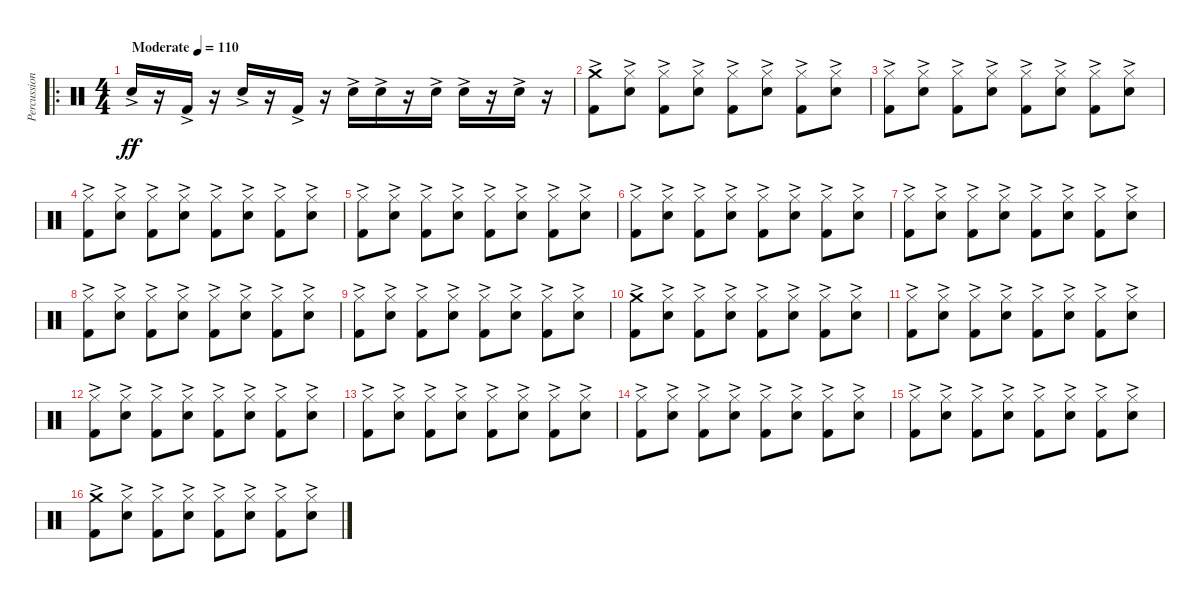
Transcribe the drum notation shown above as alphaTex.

\track ("Percussion" "Percussion") {instrument percussion}
\staff {score}
\articulation defaults
\ro
\ts (4 4)
\tempo (110 "Moderate")
\clef neutral
\ks c "Snare (hit) 2"{ac}.16{dy ff}
r.16 "Kick (hit) 2"{ac}.16 r.16 "Snare (hit) 2"{ac}.16 r.16 "Kick (hit) 2"{ac}.16 r.16 "Snare (hit) 2"{ac}.16 "Snare (hit) 2"{ac}.16 r.16 "Snare (hit) 2"{ac}.16 "Snare (hit) 2"{ac}.16 r.16 "Snare (hit) 2"{ac}.16 r.16 |
("Crash medium (hit)"{ac} "Kick (hit) 2"{ac}).8 ("Hi-Hat (closed)"{ac} "Snare (hit) 2"{ac}).8 ("Hi-Hat (closed)"{ac} "Kick (hit) 2"{ac}).8 ("Hi-Hat (closed)"{ac} "Snare (hit) 2"{ac}).8 ("Hi-Hat (closed)"{ac} "Kick (hit) 2"{ac}).8 ("Hi-Hat (closed)"{ac} "Snare (hit) 2"{ac}).8 ("Hi-Hat (closed)"{ac} "Kick (hit) 2"{ac}).8 ("Hi-Hat (closed)"{ac} "Snare (hit) 2"{ac}).8 |
("Hi-Hat (closed)"{ac} "Kick (hit) 2"{ac}).8 ("Hi-Hat (closed)"{ac} "Snare (hit) 2"{ac}).8 ("Hi-Hat (closed)"{ac} "Kick (hit) 2"{ac}).8 ("Hi-Hat (closed)"{ac} "Snare (hit) 2"{ac}).8 ("Hi-Hat (closed)"{ac} "Kick (hit) 2"{ac}).8 ("Hi-Hat (closed)"{ac} "Snare (hit) 2"{ac}).8 ("Hi-Hat (closed)"{ac} "Kick (hit) 2"{ac}).8 ("Hi-Hat (closed)"{ac} "Snare (hit) 2"{ac}).8 |
("Hi-Hat (closed)"{ac} "Kick (hit) 2"{ac}).8 ("Hi-Hat (closed)"{ac} "Snare (hit) 2"{ac}).8 ("Hi-Hat (closed)"{ac} "Kick (hit) 2"{ac}).8 ("Hi-Hat (closed)"{ac} "Snare (hit) 2"{ac}).8 ("Hi-Hat (closed)"{ac} "Kick (hit) 2"{ac}).8 ("Hi-Hat (closed)"{ac} "Snare (hit) 2"{ac}).8 ("Hi-Hat (closed)"{ac} "Kick (hit) 2"{ac}).8 ("Hi-Hat (closed)"{ac} "Snare (hit) 2"{ac}).8 |
("Hi-Hat (closed)"{ac} "Kick (hit) 2"{ac}).8 ("Hi-Hat (closed)"{ac} "Snare (hit) 2"{ac}).8 ("Hi-Hat (closed)"{ac} "Kick (hit) 2"{ac}).8 ("Hi-Hat (closed)"{ac} "Snare (hit) 2"{ac}).8 ("Hi-Hat (closed)"{ac} "Kick (hit) 2"{ac}).8 ("Hi-Hat (closed)"{ac} "Snare (hit) 2"{ac}).8 ("Hi-Hat (closed)"{ac} "Kick (hit) 2"{ac}).8 ("Hi-Hat (closed)"{ac} "Snare (hit) 2"{ac}).8 |
("Hi-Hat (closed)"{ac} "Kick (hit) 2"{ac}).8 ("Hi-Hat (closed)"{ac} "Snare (hit) 2"{ac}).8 ("Hi-Hat (closed)"{ac} "Kick (hit) 2"{ac}).8 ("Hi-Hat (closed)"{ac} "Snare (hit) 2"{ac}).8 ("Hi-Hat (closed)"{ac} "Kick (hit) 2"{ac}).8 ("Hi-Hat (closed)"{ac} "Snare (hit) 2"{ac}).8 ("Hi-Hat (closed)"{ac} "Kick (hit) 2"{ac}).8 ("Hi-Hat (closed)"{ac} "Snare (hit) 2"{ac}).8 |
("Hi-Hat (closed)"{ac} "Kick (hit) 2"{ac}).8 ("Hi-Hat (closed)"{ac} "Snare (hit) 2"{ac}).8 ("Hi-Hat (closed)"{ac} "Kick (hit) 2"{ac}).8 ("Hi-Hat (closed)"{ac} "Snare (hit) 2"{ac}).8 ("Hi-Hat (closed)"{ac} "Kick (hit) 2"{ac}).8 ("Hi-Hat (closed)"{ac} "Snare (hit) 2"{ac}).8 ("Hi-Hat (closed)"{ac} "Kick (hit) 2"{ac}).8 ("Hi-Hat (closed)"{ac} "Snare (hit) 2"{ac}).8 |
("Hi-Hat (closed)"{ac} "Kick (hit) 2"{ac}).8 ("Hi-Hat (closed)"{ac} "Snare (hit) 2"{ac}).8 ("Hi-Hat (closed)"{ac} "Kick (hit) 2"{ac}).8 ("Hi-Hat (closed)"{ac} "Snare (hit) 2"{ac}).8 ("Hi-Hat (closed)"{ac} "Kick (hit) 2"{ac}).8 ("Hi-Hat (closed)"{ac} "Snare (hit) 2"{ac}).8 ("Hi-Hat (closed)"{ac} "Kick (hit) 2"{ac}).8 ("Hi-Hat (closed)"{ac} "Snare (hit) 2"{ac}).8 |
("Hi-Hat (closed)"{ac} "Kick (hit) 2"{ac}).8 ("Hi-Hat (closed)"{ac} "Snare (hit) 2"{ac}).8 ("Hi-Hat (closed)"{ac} "Kick (hit) 2"{ac}).8 ("Hi-Hat (closed)"{ac} "Snare (hit) 2"{ac}).8 ("Hi-Hat (closed)"{ac} "Kick (hit) 2"{ac}).8 ("Hi-Hat (closed)"{ac} "Snare (hit) 2"{ac}).8 ("Hi-Hat (closed)"{ac} "Kick (hit) 2"{ac}).8 ("Hi-Hat (closed)"{ac} "Snare (hit) 2"{ac}).8 |
("Crash medium (hit)"{ac} "Kick (hit) 2"{ac}).8 ("Hi-Hat (closed)"{ac} "Snare (hit) 2"{ac}).8 ("Hi-Hat (closed)"{ac} "Kick (hit) 2"{ac}).8 ("Hi-Hat (closed)"{ac} "Snare (hit) 2"{ac}).8 ("Hi-Hat (closed)"{ac} "Kick (hit) 2"{ac}).8 ("Hi-Hat (closed)"{ac} "Snare (hit) 2"{ac}).8 ("Hi-Hat (closed)"{ac} "Kick (hit) 2"{ac}).8 ("Hi-Hat (closed)"{ac} "Snare (hit) 2"{ac}).8 |
("Hi-Hat (closed)"{ac} "Kick (hit) 2"{ac}).8 ("Hi-Hat (closed)"{ac} "Snare (hit) 2"{ac}).8 ("Hi-Hat (closed)"{ac} "Kick (hit) 2"{ac}).8 ("Hi-Hat (closed)"{ac} "Snare (hit) 2"{ac}).8 ("Hi-Hat (closed)"{ac} "Kick (hit) 2"{ac}).8 ("Hi-Hat (closed)"{ac} "Snare (hit) 2"{ac}).8 ("Hi-Hat (closed)"{ac} "Kick (hit) 2"{ac}).8 ("Hi-Hat (closed)"{ac} "Snare (hit) 2"{ac}).8 |
("Hi-Hat (closed)"{ac} "Kick (hit) 2"{ac}).8 ("Hi-Hat (closed)"{ac} "Snare (hit) 2"{ac}).8 ("Hi-Hat (closed)"{ac} "Kick (hit) 2"{ac}).8 ("Hi-Hat (closed)"{ac} "Snare (hit) 2"{ac}).8 ("Hi-Hat (closed)"{ac} "Kick (hit) 2"{ac}).8 ("Hi-Hat (closed)"{ac} "Snare (hit) 2"{ac}).8 ("Hi-Hat (closed)"{ac} "Kick (hit) 2"{ac}).8 ("Hi-Hat (closed)"{ac} "Snare (hit) 2"{ac}).8 |
("Hi-Hat (closed)"{ac} "Kick (hit) 2"{ac}).8 ("Hi-Hat (closed)"{ac} "Snare (hit) 2"{ac}).8 ("Hi-Hat (closed)"{ac} "Kick (hit) 2"{ac}).8 ("Hi-Hat (closed)"{ac} "Snare (hit) 2"{ac}).8 ("Hi-Hat (closed)"{ac} "Kick (hit) 2"{ac}).8 ("Hi-Hat (closed)"{ac} "Snare (hit) 2"{ac}).8 ("Hi-Hat (closed)"{ac} "Kick (hit) 2"{ac}).8 ("Hi-Hat (closed)"{ac} "Snare (hit) 2"{ac}).8 |
("Hi-Hat (closed)"{ac} "Kick (hit) 2"{ac}).8 ("Hi-Hat (closed)"{ac} "Snare (hit) 2"{ac}).8 ("Hi-Hat (closed)"{ac} "Kick (hit) 2"{ac}).8 ("Hi-Hat (closed)"{ac} "Snare (hit) 2"{ac}).8 ("Hi-Hat (closed)"{ac} "Kick (hit) 2"{ac}).8 ("Hi-Hat (closed)"{ac} "Snare (hit) 2"{ac}).8 ("Hi-Hat (closed)"{ac} "Kick (hit) 2"{ac}).8 ("Hi-Hat (closed)"{ac} "Snare (hit) 2"{ac}).8 |
("Hi-Hat (closed)"{ac} "Kick (hit) 2"{ac}).8 ("Hi-Hat (closed)"{ac} "Snare (hit) 2"{ac}).8 ("Hi-Hat (closed)"{ac} "Kick (hit) 2"{ac}).8 ("Hi-Hat (closed)"{ac} "Snare (hit) 2"{ac}).8 ("Hi-Hat (closed)"{ac} "Kick (hit) 2"{ac}).8 ("Hi-Hat (closed)"{ac} "Snare (hit) 2"{ac}).8 ("Hi-Hat (closed)"{ac} "Kick (hit) 2"{ac}).8 ("Hi-Hat (closed)"{ac} "Snare (hit) 2"{ac}).8 |
("Crash medium (hit)"{ac} "Kick (hit) 2"{ac}).8 ("Hi-Hat (closed)"{ac} "Snare (hit) 2"{ac}).8 ("Hi-Hat (closed)"{ac} "Kick (hit) 2"{ac}).8 ("Hi-Hat (closed)"{ac} "Snare (hit) 2"{ac}).8 ("Hi-Hat (closed)"{ac} "Kick (hit) 2"{ac}).8 ("Hi-Hat (closed)"{ac} "Snare (hit) 2"{ac}).8 ("Hi-Hat (closed)"{ac} "Kick (hit) 2"{ac}).8 ("Hi-Hat (closed)"{ac} "Snare (hit) 2"{ac}).8
